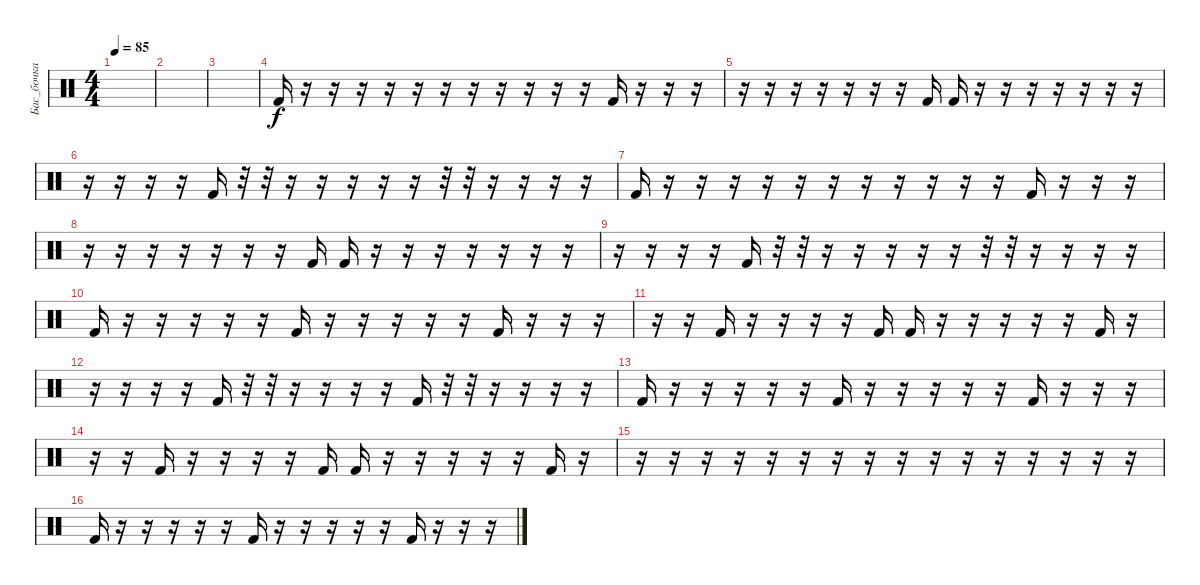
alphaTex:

\track ("Бас_бочка" "Бас_бочка") {instrument percussion}
\staff {score}
\articulation defaults
\ts (4 4)
\tempo 85
\clef neutral
\ks c
|
|
|
"Kick (hit) 2".16 r.16 r.16 r.16 r.16 r.16 r.16 r.16 r.16 r.16 r.16 r.16 "Kick (hit) 2".16 r.16 r.16 r.16 |
r.16 r.16 r.16 r.16 r.16 r.16 r.16 "Kick (hit) 2".16 "Kick (hit) 2".16 r.16 r.16 r.16 r.16 r.16 r.16 r.16 |
r.16 r.16 r.16 r.16 "Kick (hit) 2".16 r.32 r.32 r.16 r.16 r.16 r.16 r.16 r.32 r.32 r.16 r.16 r.16 r.16 |
"Kick (hit) 2".16 r.16 r.16 r.16 r.16 r.16 r.16 r.16 r.16 r.16 r.16 r.16 "Kick (hit) 2".16 r.16 r.16 r.16 |
r.16 r.16 r.16 r.16 r.16 r.16 r.16 "Kick (hit) 2".16 "Kick (hit) 2".16 r.16 r.16 r.16 r.16 r.16 r.16 r.16 |
r.16 r.16 r.16 r.16 "Kick (hit) 2".16 r.32 r.32 r.16 r.16 r.16 r.16 r.16 r.32 r.32 r.16 r.16 r.16 r.16 |
"Kick (hit) 2".16 r.16 r.16 r.16 r.16 r.16 "Kick (hit) 2".16 r.16 r.16 r.16 r.16 r.16 "Kick (hit) 2".16 r.16 r.16 r.16 |
r.16 r.16 "Kick (hit) 2".16 r.16 r.16 r.16 r.16 "Kick (hit) 2".16 "Kick (hit) 2".16 r.16 r.16 r.16 r.16 r.16 "Kick (hit) 2".16 r.16 |
r.16 r.16 r.16 r.16 "Kick (hit) 2".16 r.32 r.32 r.16 r.16 r.16 r.16 "Kick (hit) 2".16 r.32 r.32 r.16 r.16 r.16 r.16 |
"Kick (hit) 2".16 r.16 r.16 r.16 r.16 r.16 "Kick (hit) 2".16 r.16 r.16 r.16 r.16 r.16 "Kick (hit) 2".16 r.16 r.16 r.16 |
r.16 r.16 "Kick (hit) 2".16 r.16 r.16 r.16 r.16 "Kick (hit) 2".16 "Kick (hit) 2".16 r.16 r.16 r.16 r.16 r.16 "Kick (hit) 2".16 r.16 |
r.16 r.16 r.16 r.16{volume 9} r.16{volume 16} r.16 r.16 r.16 r.16 r.16 r.16 r.16 r.16 r.16 r.16 r.16{volume 16} |
"Kick (hit) 2".16 r.16 r.16 r.16 r.16 r.16 "Kick (hit) 2".16 r.16 r.16 r.16 r.16 r.16 "Kick (hit) 2".16 r.16 r.16 r.16
